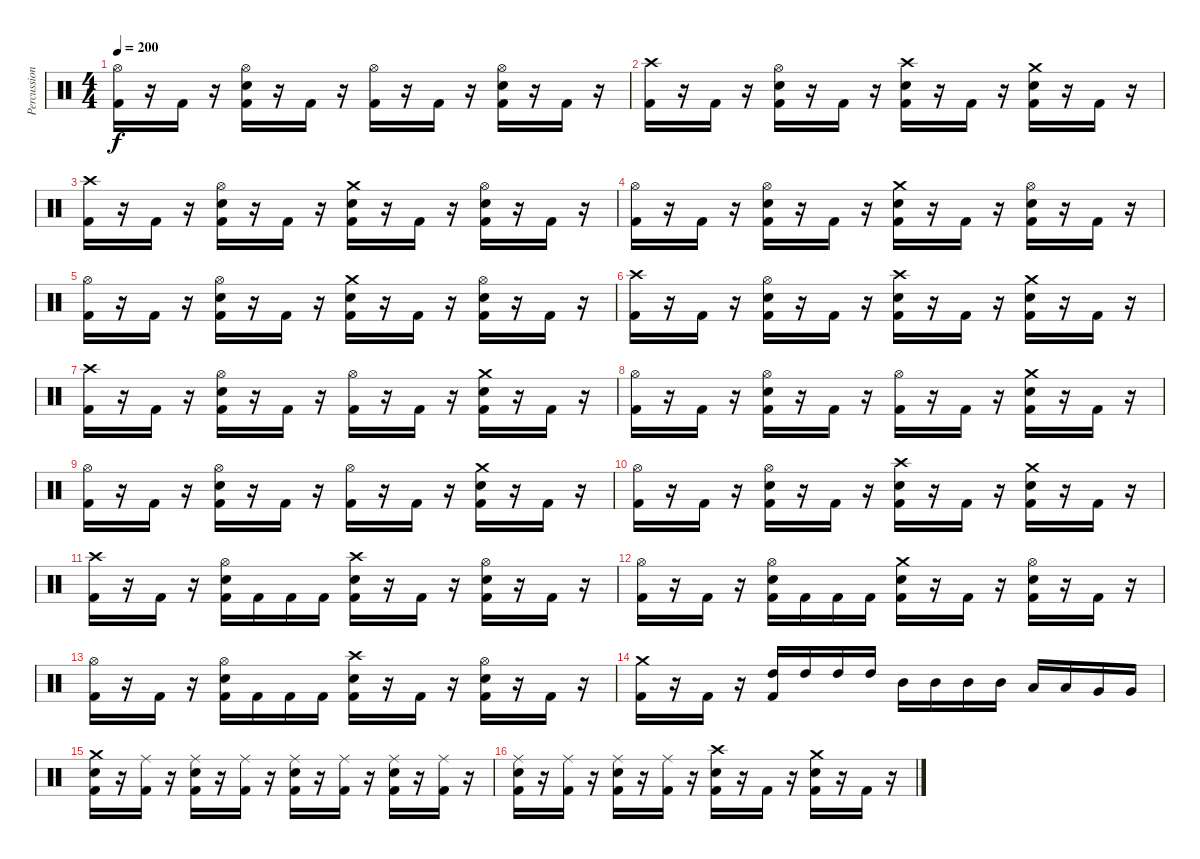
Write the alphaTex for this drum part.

\track ("Percussion" "Percussion") {instrument percussion}
\staff {score}
\articulation defaults
\ts (4 4)
\tempo 200
\clef neutral
\ks c
("Hi-Hat (open)" "Kick (hit) 2").16{dy f} r.16 "Kick (hit) 2".16 r.16 ("Hi-Hat (open)" "Snare (hit) 2" "Kick (hit) 2").16 r.16 "Kick (hit) 2".16 r.16 ("Hi-Hat (open)" "Kick (hit) 2").16 r.16 "Kick (hit) 2".16 r.16 ("Hi-Hat (open)" "Snare (hit) 2" "Kick (hit) 2").16 r.16 "Kick (hit) 2".16 r.16 |
("Crash high (hit)" "Kick (hit) 2").16 r.16 "Kick (hit) 2".16 r.16 ("Hi-Hat (open)" "Snare (hit) 2" "Kick (hit) 2").16 r.16 "Kick (hit) 2".16 r.16 ("Crash high (hit)" "Snare (hit) 2" "Kick (hit) 2").16 r.16 "Kick (hit) 2".16 r.16 ("Crash medium (hit)" "Snare (hit) 2" "Kick (hit) 2").16 r.16 "Kick (hit) 2".16 r.16 |
("Crash high (hit)" "Kick (hit) 2").16 r.16 "Kick (hit) 2".16 r.16 ("Hi-Hat (open)" "Snare (hit) 2" "Kick (hit) 2").16 r.16 "Kick (hit) 2".16 r.16 ("Crash medium (hit)" "Snare (hit) 2" "Kick (hit) 2").16 r.16 "Kick (hit) 2".16 r.16 ("Hi-Hat (open)" "Snare (hit) 2" "Kick (hit) 2").16 r.16 "Kick (hit) 2".16 r.16 |
("Hi-Hat (open)" "Kick (hit) 2").16 r.16 "Kick (hit) 2".16 r.16 ("Hi-Hat (open)" "Snare (hit) 2" "Kick (hit) 2").16 r.16 "Kick (hit) 2".16 r.16 ("Crash medium (hit)" "Snare (hit) 2" "Kick (hit) 2").16 r.16 "Kick (hit) 2".16 r.16 ("Hi-Hat (open)" "Snare (hit) 2" "Kick (hit) 2").16 r.16 "Kick (hit) 2".16 r.16 |
("Hi-Hat (open)" "Kick (hit) 2").16 r.16 "Kick (hit) 2".16 r.16 ("Hi-Hat (open)" "Snare (hit) 2" "Kick (hit) 2").16 r.16 "Kick (hit) 2".16 r.16 ("Crash medium (hit)" "Snare (hit) 2" "Kick (hit) 2").16 r.16 "Kick (hit) 2".16 r.16 ("Hi-Hat (open)" "Snare (hit) 2" "Kick (hit) 2").16 r.16 "Kick (hit) 2".16 r.16 |
("Crash high (hit)" "Kick (hit) 2").16 r.16 "Kick (hit) 2".16 r.16 ("Hi-Hat (open)" "Snare (hit) 2" "Kick (hit) 2").16 r.16 "Kick (hit) 2".16 r.16 ("Crash high (hit)" "Snare (hit) 2" "Kick (hit) 2").16 r.16 "Kick (hit) 2".16 r.16 ("Crash medium (hit)" "Snare (hit) 2" "Kick (hit) 2").16 r.16 "Kick (hit) 2".16 r.16 |
("Crash high (hit)" "Kick (hit) 2").16 r.16 "Kick (hit) 2".16 r.16 ("Hi-Hat (open)" "Snare (hit) 2" "Kick (hit) 2").16 r.16 "Kick (hit) 2".16 r.16 ("Hi-Hat (open)" "Kick (hit) 2").16 r.16 "Kick (hit) 2".16 r.16 ("Crash medium (hit)" "Snare (hit) 2" "Kick (hit) 2").16 r.16 "Kick (hit) 2".16 r.16 |
("Hi-Hat (open)" "Kick (hit) 2").16 r.16 "Kick (hit) 2".16 r.16 ("Hi-Hat (open)" "Snare (hit) 2" "Kick (hit) 2").16 r.16 "Kick (hit) 2".16 r.16 ("Hi-Hat (open)" "Kick (hit) 2").16 r.16 "Kick (hit) 2".16 r.16 ("Crash medium (hit)" "Snare (hit) 2" "Kick (hit) 2").16 r.16 "Kick (hit) 2".16 r.16 |
("Hi-Hat (open)" "Kick (hit) 2").16 r.16 "Kick (hit) 2".16 r.16 ("Hi-Hat (open)" "Snare (hit) 2" "Kick (hit) 2").16 r.16 "Kick (hit) 2".16 r.16 ("Hi-Hat (open)" "Kick (hit) 2").16 r.16 "Kick (hit) 2".16 r.16 ("Crash medium (hit)" "Snare (hit) 2" "Kick (hit) 2").16 r.16 "Kick (hit) 2".16 r.16 |
("Hi-Hat (open)" "Kick (hit) 2").16 r.16 "Kick (hit) 2".16 r.16 ("Hi-Hat (open)" "Snare (hit) 2" "Kick (hit) 2").16 r.16 "Kick (hit) 2".16 r.16 ("Crash high (hit)" "Snare (hit) 2" "Kick (hit) 2").16 r.16 "Kick (hit) 2".16 r.16 ("Crash medium (hit)" "Snare (hit) 2" "Kick (hit) 2").16 r.16 "Kick (hit) 2".16 r.16 |
("Crash high (hit)" "Kick (hit) 2").16 r.16 "Kick (hit) 2".16 r.16 ("Hi-Hat (open)" "Snare (hit) 2" "Kick (hit) 2").16 "Kick (hit) 2".16 "Kick (hit) 2".16 "Kick (hit) 2".16 ("Crash high (hit)" "Snare (hit) 2" "Kick (hit) 2").16 r.16 "Kick (hit) 2".16 r.16 ("Hi-Hat (open)" "Snare (hit) 2" "Kick (hit) 2").16 r.16 "Kick (hit) 2".16 r.16 |
("Hi-Hat (open)" "Kick (hit) 2").16 r.16 "Kick (hit) 2".16 r.16 ("Hi-Hat (open)" "Snare (hit) 2" "Kick (hit) 2").16 "Kick (hit) 2".16 "Kick (hit) 2".16 "Kick (hit) 2".16 ("Crash medium (hit)" "Snare (hit) 2" "Kick (hit) 2").16 r.16 "Kick (hit) 2".16 r.16 ("Hi-Hat (open)" "Snare (hit) 2" "Kick (hit) 2").16 r.16 "Kick (hit) 2".16 r.16 |
("Hi-Hat (open)" "Kick (hit) 2").16 r.16 "Kick (hit) 2".16 r.16 ("Hi-Hat (open)" "Snare (hit) 2" "Kick (hit) 2").16 "Kick (hit) 2".16 "Kick (hit) 2".16 "Kick (hit) 2".16 ("Crash high (hit)" "Snare (hit) 2" "Kick (hit) 2").16 r.16 "Kick (hit) 2".16 r.16 ("Hi-Hat (open)" "Snare (hit) 2" "Kick (hit) 2").16 r.16 "Kick (hit) 2".16 r.16 |
("Crash medium (hit)" "Kick (hit) 2").16 r.16 "Kick (hit) 2".16 r.16 ("High Tom (hit)" "Kick (hit) 2").16 "High Tom (hit)".16 "High Tom (hit)".16 "High Tom (hit)".16 "Mid Tom (hit)".16 "Mid Tom (hit)".16 "Mid Tom (hit)".16 "Mid Tom (hit)".16 "Low Tom (hit)".16 "Low Tom (hit)".16 "Very Low Tom (hit)".16 "Very Low Tom (hit)".16 |
("Crash medium (hit)" "Snare (hit) 2" "Kick (hit) 2").16 r.16 ("Ride (middle)" "Kick (hit) 2").16 r.16 ("Ride (middle)" "Snare (hit) 2" "Kick (hit) 2").16 r.16 ("Ride (middle)" "Kick (hit) 2").16 r.16 ("Ride (middle)" "Snare (hit) 2" "Kick (hit) 2").16 r.16 ("Ride (middle)" "Kick (hit) 2").16 r.16 ("Ride (middle)" "Snare (hit) 2" "Kick (hit) 2").16 r.16 ("Ride (middle)" "Kick (hit) 2").16 r.16 |
("Ride (middle)" "Snare (hit) 2" "Kick (hit) 2").16 r.16 ("Ride (middle)" "Kick (hit) 2").16 r.16 ("Ride (middle)" "Snare (hit) 2" "Kick (hit) 2").16 r.16 ("Ride (middle)" "Kick (hit) 2").16 r.16 ("Crash high (hit)" "Snare (hit) 2" "Kick (hit) 2").16 r.16 "Kick (hit) 2".16 r.16 ("Crash medium (hit)" "Snare (hit) 2" "Kick (hit) 2").16 r.16 "Kick (hit) 2".16 r.16
